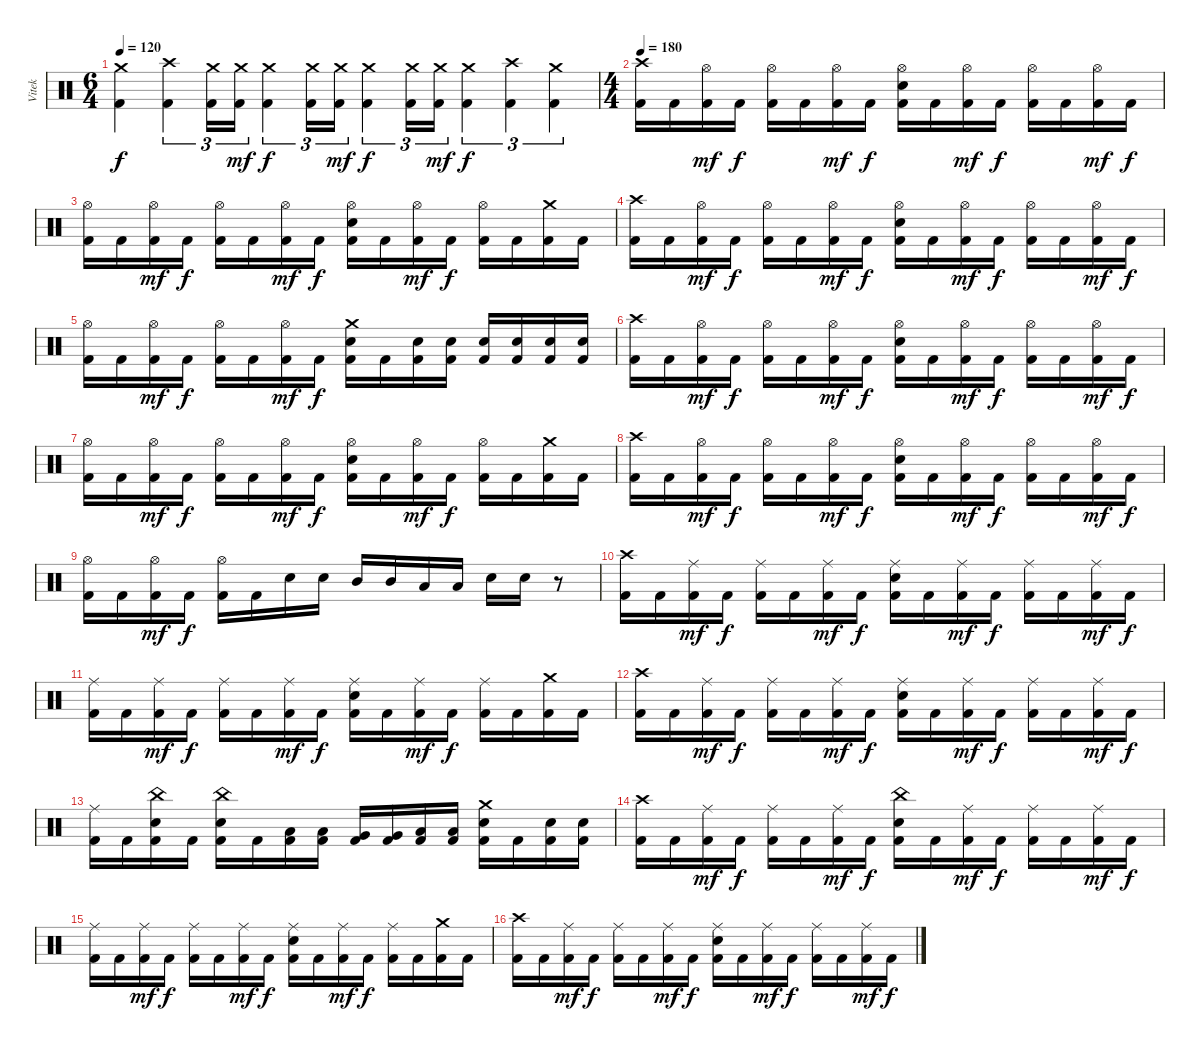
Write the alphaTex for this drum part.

\track ("Vitek" "Vitek") {instrument percussion}
\staff {score}
\articulation defaults
\ts (6 4)
\tempo 120
\clef neutral
\ks c
("Crash medium (hit)" "Kick (hit) 2").4{dy f} ("Crash high (hit)" "Kick (hit) 2").4{tu (3 2)} ("Crash medium (hit)" "Kick (hit) 2").16{tu (3 2)} ("Crash medium (hit)" "Kick (hit) 2").16{tu (3 2) dy mf} ("Crash medium (hit)" "Kick (hit) 2").4{tu (3 2) dy f} ("Crash medium (hit)" "Kick (hit) 2").16{tu (3 2)} ("Crash medium (hit)" "Kick (hit) 2").16{tu (3 2) dy mf} ("Crash medium (hit)" "Kick (hit) 2").4{tu (3 2) dy f} ("Crash medium (hit)" "Kick (hit) 2").16{tu (3 2)} ("Crash medium (hit)" "Kick (hit) 2").16{tu (3 2) dy mf} ("Crash medium (hit)" "Kick (hit) 2").4{tu (3 2) dy f} ("Crash high (hit)" "Kick (hit) 2").4{tu (3 2)} ("Crash medium (hit)" "Kick (hit) 2").4{tu (3 2)} |
\ts (4 4)
\tempo 180
("Crash high (hit)" "Kick (hit) 2").16 "Kick (hit) 2".16 ("Hi-Hat (open)" "Kick (hit) 2").16{dy mf} "Kick (hit) 2".16{dy f} ("Hi-Hat (open)" "Kick (hit) 2").16 "Kick (hit) 2".16 ("Hi-Hat (open)" "Kick (hit) 2").16{dy mf} "Kick (hit) 2".16{dy f} ("Hi-Hat (open)" "Electric Snare (hit)" "Kick (hit) 2").16 "Kick (hit) 2".16 ("Hi-Hat (open)" "Kick (hit) 2").16{dy mf} "Kick (hit) 2".16{dy f} ("Hi-Hat (open)" "Kick (hit) 2").16 "Kick (hit) 2".16 ("Hi-Hat (open)" "Kick (hit) 2").16{dy mf} "Kick (hit) 2".16{dy f} |
("Hi-Hat (open)" "Kick (hit) 2").16 "Kick (hit) 2".16 ("Hi-Hat (open)" "Kick (hit) 2").16{dy mf} "Kick (hit) 2".16{dy f} ("Hi-Hat (open)" "Kick (hit) 2").16 "Kick (hit) 2".16 ("Hi-Hat (open)" "Kick (hit) 2").16{dy mf} "Kick (hit) 2".16{dy f} ("Hi-Hat (open)" "Electric Snare (hit)" "Kick (hit) 2").16 "Kick (hit) 2".16 ("Hi-Hat (open)" "Kick (hit) 2").16{dy mf} "Kick (hit) 2".16{dy f} ("Hi-Hat (open)" "Kick (hit) 2").16 "Kick (hit) 2".16 ("Crash medium (hit)" "Kick (hit) 2").16 "Kick (hit) 2".16 |
("Crash high (hit)" "Kick (hit) 2").16 "Kick (hit) 2".16 ("Hi-Hat (open)" "Kick (hit) 2").16{dy mf} "Kick (hit) 2".16{dy f} ("Hi-Hat (open)" "Kick (hit) 2").16 "Kick (hit) 2".16 ("Hi-Hat (open)" "Kick (hit) 2").16{dy mf} "Kick (hit) 2".16{dy f} ("Hi-Hat (open)" "Electric Snare (hit)" "Kick (hit) 2").16 "Kick (hit) 2".16 ("Hi-Hat (open)" "Kick (hit) 2").16{dy mf} "Kick (hit) 2".16{dy f} ("Hi-Hat (open)" "Kick (hit) 2").16 "Kick (hit) 2".16 ("Hi-Hat (open)" "Kick (hit) 2").16{dy mf} "Kick (hit) 2".16{dy f} |
("Hi-Hat (open)" "Kick (hit) 2").16 "Kick (hit) 2".16 ("Hi-Hat (open)" "Kick (hit) 2").16{dy mf} "Kick (hit) 2".16{dy f} ("Hi-Hat (open)" "Kick (hit) 2").16 "Kick (hit) 2".16 ("Hi-Hat (open)" "Kick (hit) 2").16{dy mf} "Kick (hit) 2".16{dy f} ("Crash medium (hit)" "Electric Snare (hit)" "Kick (hit) 2").16 "Kick (hit) 2".16 ("Electric Snare (hit)" "Kick (hit) 2").16 ("Electric Snare (hit)" "Kick (hit) 2").16 ("Electric Snare (hit)" "Kick (hit) 2").16 ("Electric Snare (hit)" "Kick (hit) 2").16 ("Electric Snare (hit)" "Kick (hit) 2").16 ("Electric Snare (hit)" "Kick (hit) 2").16 |
("Crash high (hit)" "Kick (hit) 2").16 "Kick (hit) 2".16 ("Hi-Hat (open)" "Kick (hit) 2").16{dy mf} "Kick (hit) 2".16{dy f} ("Hi-Hat (open)" "Kick (hit) 2").16 "Kick (hit) 2".16 ("Hi-Hat (open)" "Kick (hit) 2").16{dy mf} "Kick (hit) 2".16{dy f} ("Hi-Hat (open)" "Electric Snare (hit)" "Kick (hit) 2").16 "Kick (hit) 2".16 ("Hi-Hat (open)" "Kick (hit) 2").16{dy mf} "Kick (hit) 2".16{dy f} ("Hi-Hat (open)" "Kick (hit) 2").16 "Kick (hit) 2".16 ("Hi-Hat (open)" "Kick (hit) 2").16{dy mf} "Kick (hit) 2".16{dy f} |
("Hi-Hat (open)" "Kick (hit) 2").16 "Kick (hit) 2".16 ("Hi-Hat (open)" "Kick (hit) 2").16{dy mf} "Kick (hit) 2".16{dy f} ("Hi-Hat (open)" "Kick (hit) 2").16 "Kick (hit) 2".16 ("Hi-Hat (open)" "Kick (hit) 2").16{dy mf} "Kick (hit) 2".16{dy f} ("Hi-Hat (open)" "Electric Snare (hit)" "Kick (hit) 2").16 "Kick (hit) 2".16 ("Hi-Hat (open)" "Kick (hit) 2").16{dy mf} "Kick (hit) 2".16{dy f} ("Hi-Hat (open)" "Kick (hit) 2").16 "Kick (hit) 2".16 ("Crash medium (hit)" "Kick (hit) 2").16 "Kick (hit) 2".16 |
("Crash high (hit)" "Kick (hit) 2").16 "Kick (hit) 2".16 ("Hi-Hat (open)" "Kick (hit) 2").16{dy mf} "Kick (hit) 2".16{dy f} ("Hi-Hat (open)" "Kick (hit) 2").16 "Kick (hit) 2".16 ("Hi-Hat (open)" "Kick (hit) 2").16{dy mf} "Kick (hit) 2".16{dy f} ("Hi-Hat (open)" "Electric Snare (hit)" "Kick (hit) 2").16 "Kick (hit) 2".16 ("Hi-Hat (open)" "Kick (hit) 2").16{dy mf} "Kick (hit) 2".16{dy f} ("Hi-Hat (open)" "Kick (hit) 2").16 "Kick (hit) 2".16 ("Hi-Hat (open)" "Kick (hit) 2").16{dy mf} "Kick (hit) 2".16{dy f} |
("Hi-Hat (open)" "Kick (hit) 2").16 "Kick (hit) 2".16 ("Hi-Hat (open)" "Kick (hit) 2").16{dy mf} "Kick (hit) 2".16{dy f} ("Hi-Hat (open)" "Kick (hit) 2").16 "Kick (hit) 2".16 "Electric Snare (hit)".16 "Electric Snare (hit)".16 "Mid Tom (hit)".16 "Mid Tom (hit)".16 "Low Tom (hit)".16 "Low Tom (hit)".16 "Electric Snare (hit)".16 "Electric Snare (hit)".16 r.8 |
("Crash high (hit)" "Kick (hit) 2").16 "Kick (hit) 2".16 ("Ride (middle)" "Kick (hit) 2").16{dy mf} "Kick (hit) 2".16{dy f} ("Ride (middle)" "Kick (hit) 2").16 "Kick (hit) 2".16 ("Ride (middle)" "Kick (hit) 2").16{dy mf} "Kick (hit) 2".16{dy f} ("Ride (middle)" "Electric Snare (hit)" "Kick (hit) 2").16 "Kick (hit) 2".16 ("Ride (middle)" "Kick (hit) 2").16{dy mf} "Kick (hit) 2".16{dy f} ("Ride (middle)" "Kick (hit) 2").16 "Kick (hit) 2".16 ("Ride (middle)" "Kick (hit) 2").16{dy mf} "Kick (hit) 2".16{dy f} |
("Ride (middle)" "Kick (hit) 2").16 "Kick (hit) 2".16 ("Ride (middle)" "Kick (hit) 2").16{dy mf} "Kick (hit) 2".16{dy f} ("Ride (middle)" "Kick (hit) 2").16 "Kick (hit) 2".16 ("Ride (middle)" "Kick (hit) 2").16{dy mf} "Kick (hit) 2".16{dy f} ("Ride (middle)" "Electric Snare (hit)" "Kick (hit) 2").16 "Kick (hit) 2".16 ("Ride (middle)" "Kick (hit) 2").16{dy mf} "Kick (hit) 2".16{dy f} ("Ride (middle)" "Kick (hit) 2").16 "Kick (hit) 2".16 ("Crash medium (hit)" "Kick (hit) 2").16 "Kick (hit) 2".16 |
("Crash high (hit)" "Kick (hit) 2").16 "Kick (hit) 2".16 ("Ride (middle)" "Kick (hit) 2").16{dy mf} "Kick (hit) 2".16{dy f} ("Ride (middle)" "Kick (hit) 2").16 "Kick (hit) 2".16 ("Ride (middle)" "Kick (hit) 2").16{dy mf} "Kick (hit) 2".16{dy f} ("Ride (middle)" "Electric Snare (hit)" "Kick (hit) 2").16 "Kick (hit) 2".16 ("Ride (middle)" "Kick (hit) 2").16{dy mf} "Kick (hit) 2".16{dy f} ("Ride (middle)" "Kick (hit) 2").16 "Kick (hit) 2".16 ("Ride (middle)" "Kick (hit) 2").16{dy mf} "Kick (hit) 2".16{dy f} |
("Ride (middle)" "Kick (hit) 2").16 "Kick (hit) 2".16 ("China (hit)" "Electric Snare (hit)" "Kick (hit) 2").16 "Kick (hit) 2".16 ("China (hit)" "Electric Snare (hit)" "Kick (hit) 2").16 "Kick (hit) 2".16 ("Low Tom (hit)" "Kick (hit) 2").16 ("Low Tom (hit)" "Kick (hit) 2").16 ("Very Low Tom (hit)" "Kick (hit) 2").16 ("Very Low Tom (hit)" "Kick (hit) 2").16 ("Low Floor Tom (hit)" "Kick (hit) 2").16 ("Low Floor Tom (hit)" "Kick (hit) 2").16 ("Crash medium (hit)" "Electric Snare (hit)" "Kick (hit) 2").16 "Kick (hit) 2".16 ("Electric Snare (hit)" "Kick (hit) 2").16 ("Electric Snare (hit)" "Kick (hit) 2").16 |
("Crash high (hit)" "Kick (hit) 2").16 "Kick (hit) 2".16 ("Ride (middle)" "Kick (hit) 2").16{dy mf} "Kick (hit) 2".16{dy f} ("Ride (middle)" "Kick (hit) 2").16 "Kick (hit) 2".16 ("Ride (middle)" "Kick (hit) 2").16{dy mf} "Kick (hit) 2".16{dy f} ("China (hit)" "Electric Snare (hit)" "Kick (hit) 2").16 "Kick (hit) 2".16 ("Ride (middle)" "Kick (hit) 2").16{dy mf} "Kick (hit) 2".16{dy f} ("Ride (middle)" "Kick (hit) 2").16 "Kick (hit) 2".16 ("Ride (middle)" "Kick (hit) 2").16{dy mf} "Kick (hit) 2".16{dy f} |
("Ride (middle)" "Kick (hit) 2").16 "Kick (hit) 2".16 ("Ride (middle)" "Kick (hit) 2").16{dy mf} "Kick (hit) 2".16{dy f} ("Ride (middle)" "Kick (hit) 2").16 "Kick (hit) 2".16 ("Ride (middle)" "Kick (hit) 2").16{dy mf} "Kick (hit) 2".16{dy f} ("Ride (middle)" "Electric Snare (hit)" "Kick (hit) 2").16 "Kick (hit) 2".16 ("Ride (middle)" "Kick (hit) 2").16{dy mf} "Kick (hit) 2".16{dy f} ("Ride (middle)" "Kick (hit) 2").16 "Kick (hit) 2".16 ("Crash medium (hit)" "Kick (hit) 2").16 "Kick (hit) 2".16 |
("Crash high (hit)" "Kick (hit) 2").16 "Kick (hit) 2".16 ("Ride (middle)" "Kick (hit) 2").16{dy mf} "Kick (hit) 2".16{dy f} ("Ride (middle)" "Kick (hit) 2").16 "Kick (hit) 2".16 ("Ride (middle)" "Kick (hit) 2").16{dy mf} "Kick (hit) 2".16{dy f} ("Ride (middle)" "Electric Snare (hit)" "Kick (hit) 2").16 "Kick (hit) 2".16 ("Ride (middle)" "Kick (hit) 2").16{dy mf} "Kick (hit) 2".16{dy f} ("Ride (middle)" "Kick (hit) 2").16 "Kick (hit) 2".16 ("Ride (middle)" "Kick (hit) 2").16{dy mf} "Kick (hit) 2".16{dy f}
